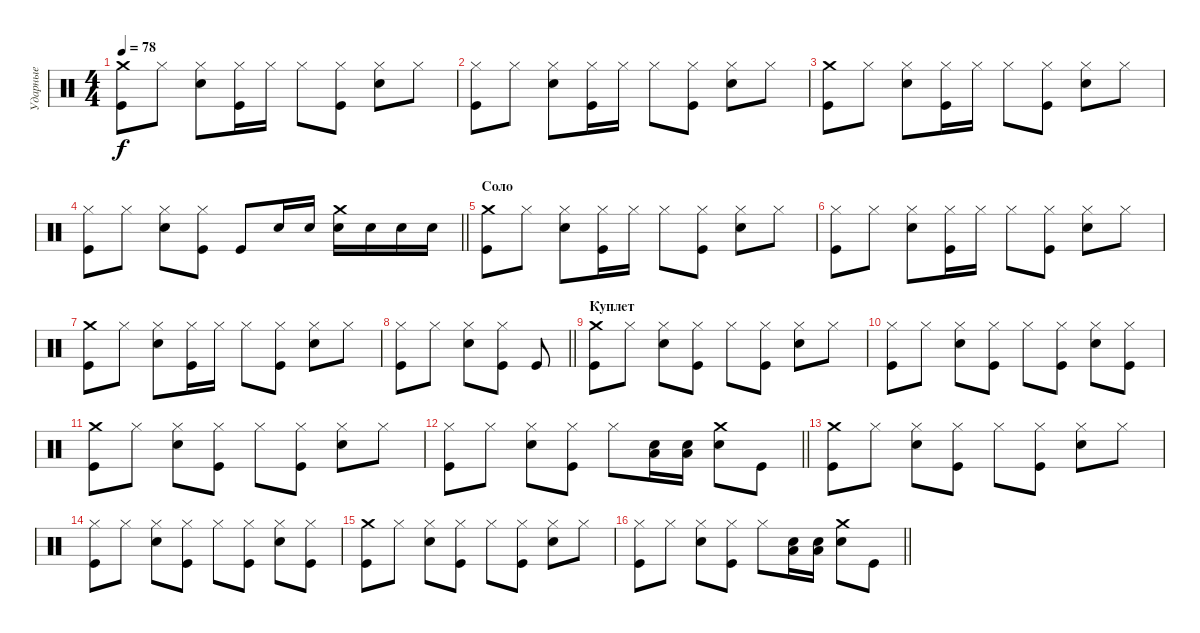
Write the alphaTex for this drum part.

\track ("Ударные" "Ударные") {instrument percussion}
\staff {score}
\articulation defaults
\ts (4 4)
\tempo 78
\clef neutral
\ks c
("Crash medium (hit)" "Kick (hit)").8{dy f} "Hi-Hat (closed)".8 ("Hi-Hat (closed)" "Snare (hit) 2").8 ("Hi-Hat (closed)" "Kick (hit)").16 "Hi-Hat (closed)".16 "Hi-Hat (closed)".8 ("Hi-Hat (closed)" "Kick (hit)").8 ("Hi-Hat (closed)" "Snare (hit) 2").8 "Hi-Hat (closed)".8 |
("Hi-Hat (closed)" "Kick (hit)").8 "Hi-Hat (closed)".8 ("Hi-Hat (closed)" "Snare (hit) 2").8 ("Hi-Hat (closed)" "Kick (hit)").16 "Hi-Hat (closed)".16 "Hi-Hat (closed)".8 ("Hi-Hat (closed)" "Kick (hit)").8 ("Hi-Hat (closed)" "Snare (hit) 2").8 "Hi-Hat (closed)".8 |
("Crash medium (hit)" "Kick (hit)").8 "Hi-Hat (closed)".8 ("Hi-Hat (closed)" "Snare (hit) 2").8 ("Hi-Hat (closed)" "Kick (hit)").16 "Hi-Hat (closed)".16 "Hi-Hat (closed)".8 ("Hi-Hat (closed)" "Kick (hit)").8 ("Hi-Hat (closed)" "Snare (hit) 2").8 "Hi-Hat (closed)".8 |
\barLineRight lightlight
("Hi-Hat (closed)" "Kick (hit)").8 "Hi-Hat (closed)".8 ("Hi-Hat (closed)" "Snare (hit) 2").8 ("Hi-Hat (closed)" "Kick (hit)").8 "Kick (hit)".8 "Snare (hit) 2".16 "Snare (hit) 2".16 ("Snare (hit) 2" "Crash medium (hit)").16 "Snare (hit) 2".16 "Snare (hit) 2".16 "Snare (hit) 2".16 |
\section ("" "Соло")
("Crash medium (hit)" "Kick (hit)").8 "Hi-Hat (closed)".8 ("Hi-Hat (closed)" "Snare (hit) 2").8 ("Hi-Hat (closed)" "Kick (hit)").16 "Hi-Hat (closed)".16 "Hi-Hat (closed)".8 ("Hi-Hat (closed)" "Kick (hit)").8 ("Hi-Hat (closed)" "Snare (hit) 2").8 "Hi-Hat (closed)".8 |
("Hi-Hat (closed)" "Kick (hit)").8 "Hi-Hat (closed)".8 ("Hi-Hat (closed)" "Snare (hit) 2").8 ("Hi-Hat (closed)" "Kick (hit)").16 "Hi-Hat (closed)".16 "Hi-Hat (closed)".8 ("Hi-Hat (closed)" "Kick (hit)").8 ("Hi-Hat (closed)" "Snare (hit) 2").8 "Hi-Hat (closed)".8 |
("Crash medium (hit)" "Kick (hit)").8 "Hi-Hat (closed)".8 ("Hi-Hat (closed)" "Snare (hit) 2").8 ("Hi-Hat (closed)" "Kick (hit)").16 "Hi-Hat (closed)".16 "Hi-Hat (closed)".8 ("Hi-Hat (closed)" "Kick (hit)").8 ("Hi-Hat (closed)" "Snare (hit) 2").8 "Hi-Hat (closed)".8 |
\barLineRight lightlight
("Hi-Hat (closed)" "Kick (hit)").8 "Hi-Hat (closed)".8 ("Hi-Hat (closed)" "Snare (hit) 2").8 ("Hi-Hat (closed)" "Kick (hit)").8 "Kick (hit)".8 |
\section ("" "Куплет")
("Crash medium (hit)" "Kick (hit)").8 "Hi-Hat (closed)".8 ("Hi-Hat (closed)" "Snare (hit) 2").8 ("Hi-Hat (closed)" "Kick (hit)").8 "Hi-Hat (closed)".8 ("Hi-Hat (closed)" "Kick (hit)").8 ("Hi-Hat (closed)" "Snare (hit) 2").8 "Hi-Hat (closed)".8 |
("Hi-Hat (closed)" "Kick (hit)").8 "Hi-Hat (closed)".8 ("Hi-Hat (closed)" "Snare (hit) 2").8 ("Hi-Hat (closed)" "Kick (hit)").8 "Hi-Hat (closed)".8 ("Hi-Hat (closed)" "Kick (hit)").8 ("Hi-Hat (closed)" "Snare (hit) 2").8 ("Hi-Hat (closed)" "Kick (hit)").8 |
("Crash medium (hit)" "Kick (hit)").8 "Hi-Hat (closed)".8 ("Hi-Hat (closed)" "Snare (hit) 2").8 ("Hi-Hat (closed)" "Kick (hit)").8 "Hi-Hat (closed)".8 ("Hi-Hat (closed)" "Kick (hit)").8 ("Hi-Hat (closed)" "Snare (hit) 2").8 "Hi-Hat (closed)".8 |
\barLineRight lightlight
("Hi-Hat (closed)" "Kick (hit)").8 "Hi-Hat (closed)".8 ("Hi-Hat (closed)" "Snare (hit) 2").8 ("Hi-Hat (closed)" "Kick (hit)").8 "Hi-Hat (closed)".8 ("Low Floor Tom (hit)" "Snare (hit) 2").16 ("Low Floor Tom (hit)" "Snare (hit) 2").16 ("Snare (hit) 2" "Crash medium (hit)").8 "Kick (hit)".8 |
("Crash medium (hit)" "Kick (hit)").8 "Hi-Hat (closed)".8 ("Hi-Hat (closed)" "Snare (hit) 2").8 ("Hi-Hat (closed)" "Kick (hit)").8 "Hi-Hat (closed)".8 ("Hi-Hat (closed)" "Kick (hit)").8 ("Hi-Hat (closed)" "Snare (hit) 2").8 "Hi-Hat (closed)".8 |
("Hi-Hat (closed)" "Kick (hit)").8 "Hi-Hat (closed)".8 ("Hi-Hat (closed)" "Snare (hit) 2").8 ("Hi-Hat (closed)" "Kick (hit)").8 "Hi-Hat (closed)".8 ("Hi-Hat (closed)" "Kick (hit)").8 ("Hi-Hat (closed)" "Snare (hit) 2").8 ("Hi-Hat (closed)" "Kick (hit)").8 |
("Crash medium (hit)" "Kick (hit)").8 "Hi-Hat (closed)".8 ("Hi-Hat (closed)" "Snare (hit) 2").8 ("Hi-Hat (closed)" "Kick (hit)").8 "Hi-Hat (closed)".8 ("Hi-Hat (closed)" "Kick (hit)").8 ("Hi-Hat (closed)" "Snare (hit) 2").8 "Hi-Hat (closed)".8 |
\barLineRight lightlight
("Hi-Hat (closed)" "Kick (hit)").8 "Hi-Hat (closed)".8 ("Hi-Hat (closed)" "Snare (hit) 2").8 ("Hi-Hat (closed)" "Kick (hit)").8 "Hi-Hat (closed)".8 ("Low Floor Tom (hit)" "Snare (hit) 2").16 ("Low Floor Tom (hit)" "Snare (hit) 2").16 ("Snare (hit) 2" "Crash medium (hit)").8 "Kick (hit)".8
